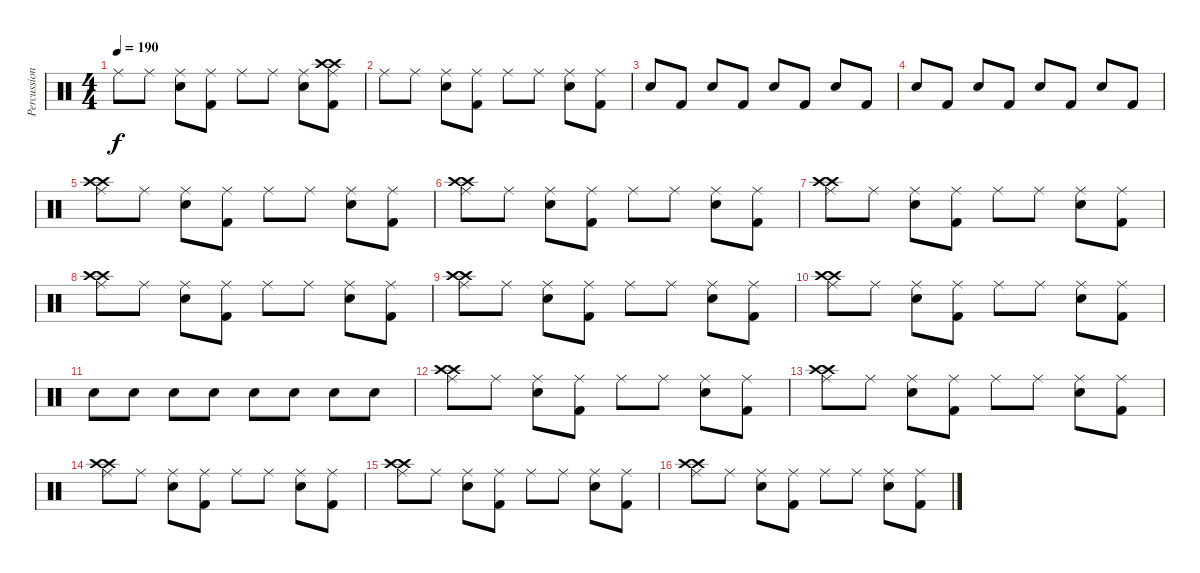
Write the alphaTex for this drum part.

\track ("Percussion" "Percussion") {instrument percussion}
\staff {score}
\articulation defaults
\ts (4 4)
\tempo 190
\clef neutral
\ks c "Ride (middle)".8{dy f} "Ride (middle)".8
("Ride (middle)" "Snare (hit) 2").8 ("Ride (middle)" "Kick (hit) 2").8 "Ride (middle)".8 "Ride (middle)".8 ("Ride (middle)" "Snare (hit) 2").8 ("Ride (middle)" "Kick (hit) 2" "Crash high (hit)" "Crash high (hit)").8 |
"Ride (middle)".8 "Ride (middle)".8 ("Ride (middle)" "Snare (hit) 2").8 ("Ride (middle)" "Kick (hit) 2").8 "Ride (middle)".8 "Ride (middle)".8 ("Ride (middle)" "Snare (hit) 2").8 ("Ride (middle)" "Kick (hit) 2").8 |
"Snare (hit) 2".8 "Kick (hit) 2".8 "Snare (hit) 2".8 "Kick (hit) 2".8 "Snare (hit) 2".8 "Kick (hit) 2".8 "Snare (hit) 2".8 "Kick (hit) 2".8 |
"Snare (hit) 2".8 "Kick (hit) 2".8 "Snare (hit) 2".8 "Kick (hit) 2".8 "Snare (hit) 2".8 "Kick (hit) 2".8 "Snare (hit) 2".8 "Kick (hit) 2".8 |
("Ride (middle)" "Crash high (hit)" "Crash high (hit)").8 "Ride (middle)".8 ("Ride (middle)" "Snare (hit) 2").8 ("Ride (middle)" "Kick (hit) 2").8 "Ride (middle)".8 "Ride (middle)".8 ("Ride (middle)" "Snare (hit) 2").8 ("Ride (middle)" "Kick (hit) 2").8 |
("Ride (middle)" "Crash high (hit)" "Crash high (hit)").8 "Ride (middle)".8 ("Ride (middle)" "Snare (hit) 2").8 ("Ride (middle)" "Kick (hit) 2").8 "Ride (middle)".8 "Ride (middle)".8 ("Ride (middle)" "Snare (hit) 2").8 ("Ride (middle)" "Kick (hit) 2").8 |
("Ride (middle)" "Crash high (hit)" "Crash high (hit)").8 "Ride (middle)".8 ("Ride (middle)" "Snare (hit) 2").8 ("Ride (middle)" "Kick (hit) 2").8 "Ride (middle)".8 "Ride (middle)".8 ("Ride (middle)" "Snare (hit) 2").8 ("Ride (middle)" "Kick (hit) 2").8 |
("Ride (middle)" "Crash high (hit)" "Crash high (hit)").8 "Ride (middle)".8 ("Ride (middle)" "Snare (hit) 2").8 ("Ride (middle)" "Kick (hit) 2").8 "Ride (middle)".8 "Ride (middle)".8 ("Ride (middle)" "Snare (hit) 2").8 ("Ride (middle)" "Kick (hit) 2").8 |
("Ride (middle)" "Crash high (hit)" "Crash high (hit)").8 "Ride (middle)".8 ("Ride (middle)" "Snare (hit) 2").8 ("Ride (middle)" "Kick (hit) 2").8 "Ride (middle)".8 "Ride (middle)".8 ("Ride (middle)" "Snare (hit) 2").8 ("Ride (middle)" "Kick (hit) 2").8 |
("Ride (middle)" "Crash high (hit)" "Crash high (hit)").8 "Ride (middle)".8 ("Ride (middle)" "Snare (hit) 2").8 ("Ride (middle)" "Kick (hit) 2").8 "Ride (middle)".8 "Ride (middle)".8 ("Ride (middle)" "Snare (hit) 2").8 ("Ride (middle)" "Kick (hit) 2").8 |
"Snare (hit) 2".8 "Snare (hit) 2".8 "Snare (hit) 2".8 "Snare (hit) 2".8 "Snare (hit) 2".8 "Snare (hit) 2".8 "Snare (hit) 2".8 "Snare (hit) 2".8 |
("Ride (middle)" "Crash high (hit)" "Crash high (hit)").8 "Ride (middle)".8 ("Ride (middle)" "Snare (hit) 2").8 ("Ride (middle)" "Kick (hit) 2").8 "Ride (middle)".8 "Ride (middle)".8 ("Ride (middle)" "Snare (hit) 2").8 ("Ride (middle)" "Kick (hit) 2").8 |
("Ride (middle)" "Crash high (hit)" "Crash high (hit)").8 "Ride (middle)".8 ("Ride (middle)" "Snare (hit) 2").8 ("Ride (middle)" "Kick (hit) 2").8 "Ride (middle)".8 "Ride (middle)".8 ("Ride (middle)" "Snare (hit) 2").8 ("Ride (middle)" "Kick (hit) 2").8 |
("Ride (middle)" "Crash high (hit)" "Crash high (hit)").8 "Ride (middle)".8 ("Ride (middle)" "Snare (hit) 2").8 ("Ride (middle)" "Kick (hit) 2").8 "Ride (middle)".8 "Ride (middle)".8 ("Ride (middle)" "Snare (hit) 2").8 ("Ride (middle)" "Kick (hit) 2").8 |
("Ride (middle)" "Crash high (hit)" "Crash high (hit)").8 "Ride (middle)".8 ("Ride (middle)" "Snare (hit) 2").8 ("Ride (middle)" "Kick (hit) 2").8 "Ride (middle)".8 "Ride (middle)".8 ("Ride (middle)" "Snare (hit) 2").8 ("Ride (middle)" "Kick (hit) 2").8 |
("Ride (middle)" "Crash high (hit)" "Crash high (hit)").8 "Ride (middle)".8 ("Ride (middle)" "Snare (hit) 2").8 ("Ride (middle)" "Kick (hit) 2").8 "Ride (middle)".8 "Ride (middle)".8 ("Ride (middle)" "Snare (hit) 2").8 ("Ride (middle)" "Kick (hit) 2").8
